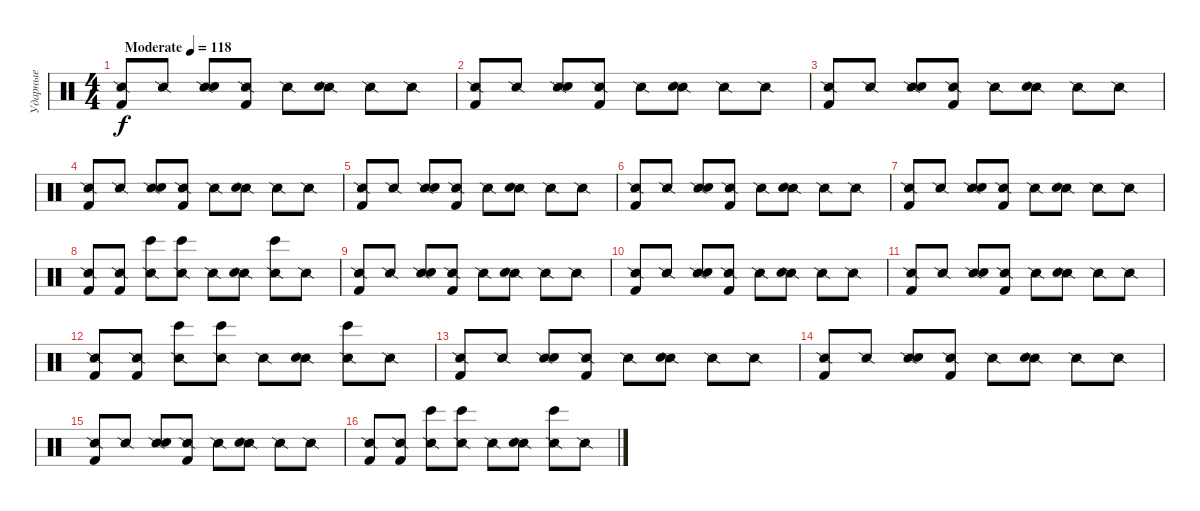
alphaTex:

\track ("Ударные" "Ударные") {solo instrument percussion}
\staff {score}
\articulation defaults
\ts (4 4)
\tempo (118 "Moderate")
\clef neutral
\ks c
("Snare (side stick) 2" "Kick (hit) 2").8{dy f} "Snare (side stick) 2".8 ("Snare (side stick) 2" "Electric Snare (hit)").8 ("Snare (side stick) 2" "Kick (hit) 2").8 "Snare (side stick) 2".8 ("Snare (side stick) 2" "Electric Snare (hit)").8 "Snare (side stick) 2".8 "Snare (side stick) 2".8 |
("Snare (side stick) 2" "Kick (hit) 2").8 "Snare (side stick) 2".8 ("Snare (side stick) 2" "Electric Snare (hit)").8 ("Snare (side stick) 2" "Kick (hit) 2").8 "Snare (side stick) 2".8 ("Snare (side stick) 2" "Electric Snare (hit)").8 "Snare (side stick) 2".8 "Snare (side stick) 2".8 |
("Snare (side stick) 2" "Kick (hit) 2").8 "Snare (side stick) 2".8 ("Snare (side stick) 2" "Electric Snare (hit)").8 ("Snare (side stick) 2" "Kick (hit) 2").8 "Snare (side stick) 2".8 ("Snare (side stick) 2" "Electric Snare (hit)").8 "Snare (side stick) 2".8 "Snare (side stick) 2".8 |
("Snare (side stick) 2" "Kick (hit) 2").8 "Snare (side stick) 2".8 ("Snare (side stick) 2" "Electric Snare (hit)").8 ("Snare (side stick) 2" "Kick (hit) 2").8 "Snare (side stick) 2".8 ("Snare (side stick) 2" "Electric Snare (hit)").8 "Snare (side stick) 2".8 "Snare (side stick) 2".8 |
("Snare (side stick) 2" "Kick (hit) 2").8 "Snare (side stick) 2".8 ("Snare (side stick) 2" "Electric Snare (hit)").8 ("Snare (side stick) 2" "Kick (hit) 2").8 "Snare (side stick) 2".8 ("Snare (side stick) 2" "Electric Snare (hit)").8 "Snare (side stick) 2".8 "Snare (side stick) 2".8 |
("Snare (side stick) 2" "Kick (hit) 2").8 "Snare (side stick) 2".8 ("Snare (side stick) 2" "Electric Snare (hit)").8 ("Snare (side stick) 2" "Kick (hit) 2").8 "Snare (side stick) 2".8 ("Snare (side stick) 2" "Electric Snare (hit)").8 "Snare (side stick) 2".8 "Snare (side stick) 2".8 |
("Snare (side stick) 2" "Kick (hit) 2").8 "Snare (side stick) 2".8 ("Snare (side stick) 2" "Electric Snare (hit)").8 ("Snare (side stick) 2" "Kick (hit) 2").8 "Snare (side stick) 2".8 ("Snare (side stick) 2" "Electric Snare (hit)").8 "Snare (side stick) 2".8 "Snare (side stick) 2".8 |
("Snare (side stick) 2" "Kick (hit) 2").8 ("Snare (side stick) 2" "Kick (hit) 2").8 ("Snare (side stick) 2" "Bongo High (hit)").8 ("Snare (side stick) 2" "Bongo High (hit)").8 "Snare (side stick) 2".8 ("Snare (side stick) 2" "Electric Snare (hit)").8 ("Snare (side stick) 2" "Bongo High (hit)").8 "Snare (side stick) 2".8 |
("Snare (side stick) 2" "Kick (hit) 2").8 "Snare (side stick) 2".8 ("Snare (side stick) 2" "Electric Snare (hit)").8 ("Snare (side stick) 2" "Kick (hit) 2").8 "Snare (side stick) 2".8 ("Snare (side stick) 2" "Electric Snare (hit)").8 "Snare (side stick) 2".8 "Snare (side stick) 2".8 |
("Snare (side stick) 2" "Kick (hit) 2").8 "Snare (side stick) 2".8 ("Snare (side stick) 2" "Electric Snare (hit)").8 ("Snare (side stick) 2" "Kick (hit) 2").8 "Snare (side stick) 2".8 ("Snare (side stick) 2" "Electric Snare (hit)").8 "Snare (side stick) 2".8 "Snare (side stick) 2".8 |
("Snare (side stick) 2" "Kick (hit) 2").8 "Snare (side stick) 2".8 ("Snare (side stick) 2" "Electric Snare (hit)").8 ("Snare (side stick) 2" "Kick (hit) 2").8 "Snare (side stick) 2".8 ("Snare (side stick) 2" "Electric Snare (hit)").8 "Snare (side stick) 2".8 "Snare (side stick) 2".8 |
("Snare (side stick) 2" "Kick (hit) 2").8 ("Snare (side stick) 2" "Kick (hit) 2").8 ("Snare (side stick) 2" "Bongo High (hit)").8 ("Snare (side stick) 2" "Bongo High (hit)").8 "Snare (side stick) 2".8 ("Snare (side stick) 2" "Electric Snare (hit)").8 ("Snare (side stick) 2" "Bongo High (hit)").8 "Snare (side stick) 2".8 |
("Snare (side stick) 2" "Kick (hit) 2").8 "Snare (side stick) 2".8 ("Snare (side stick) 2" "Electric Snare (hit)").8 ("Snare (side stick) 2" "Kick (hit) 2").8 "Snare (side stick) 2".8 ("Snare (side stick) 2" "Electric Snare (hit)").8 "Snare (side stick) 2".8 "Snare (side stick) 2".8 |
("Snare (side stick) 2" "Kick (hit) 2").8 "Snare (side stick) 2".8 ("Snare (side stick) 2" "Electric Snare (hit)").8 ("Snare (side stick) 2" "Kick (hit) 2").8 "Snare (side stick) 2".8 ("Snare (side stick) 2" "Electric Snare (hit)").8 "Snare (side stick) 2".8 "Snare (side stick) 2".8 |
("Snare (side stick) 2" "Kick (hit) 2").8 "Snare (side stick) 2".8 ("Snare (side stick) 2" "Electric Snare (hit)").8 ("Snare (side stick) 2" "Kick (hit) 2").8 "Snare (side stick) 2".8 ("Snare (side stick) 2" "Electric Snare (hit)").8 "Snare (side stick) 2".8 "Snare (side stick) 2".8 |
("Snare (side stick) 2" "Kick (hit) 2").8 ("Snare (side stick) 2" "Kick (hit) 2").8 ("Snare (side stick) 2" "Bongo High (hit)").8 ("Snare (side stick) 2" "Bongo High (hit)").8 "Snare (side stick) 2".8 ("Snare (side stick) 2" "Electric Snare (hit)").8 ("Snare (side stick) 2" "Bongo High (hit)").8 "Snare (side stick) 2".8
